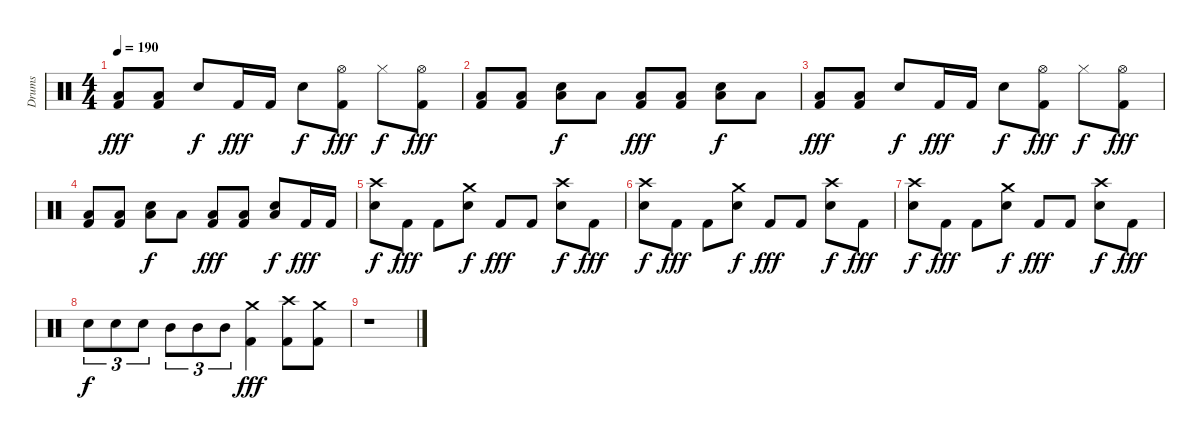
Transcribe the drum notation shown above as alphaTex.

\track ("Drums" "Drums") {instrument percussion}
\staff {score}
\articulation defaults
\ts (4 4)
\tempo 190
\clef neutral
\ks c
("Low Floor Tom (hit)" "Kick (hit) 2").8{dy fff} ("Low Floor Tom (hit)" "Kick (hit) 2").8 "Electric Snare (hit)".8{dy f} "Kick (hit) 2".16{dy fff} "Kick (hit) 2".16 "Electric Snare (hit)".8{dy f} ("Hi-Hat (open)" "Kick (hit) 2").8{dy fff} "Hi-Hat (closed)".8{dy f} ("Hi-Hat (open)" "Kick (hit) 2").8{dy fff} |
("Low Floor Tom (hit)" "Kick (hit) 2").8 ("Low Floor Tom (hit)" "Kick (hit) 2").8 ("Electric Snare (hit)" "Low Floor Tom (hit)").8{dy f} "Low Floor Tom (hit)".8 ("Low Floor Tom (hit)" "Kick (hit) 2").8{dy fff} ("Low Floor Tom (hit)" "Kick (hit) 2").8 ("Electric Snare (hit)" "Low Floor Tom (hit)").8{dy f} "Low Floor Tom (hit)".8 |
("Low Floor Tom (hit)" "Kick (hit) 2").8{dy fff} ("Low Floor Tom (hit)" "Kick (hit) 2").8 "Electric Snare (hit)".8{dy f} "Kick (hit) 2".16{dy fff} "Kick (hit) 2".16 "Electric Snare (hit)".8{dy f} ("Hi-Hat (open)" "Kick (hit) 2").8{dy fff} "Hi-Hat (closed)".8{dy f} ("Hi-Hat (open)" "Kick (hit) 2").8{dy fff} |
("Low Floor Tom (hit)" "Kick (hit) 2").8 ("Low Floor Tom (hit)" "Kick (hit) 2").8 ("Electric Snare (hit)" "Low Floor Tom (hit)").8{dy f} "Low Floor Tom (hit)".8 ("Low Floor Tom (hit)" "Kick (hit) 2").8{dy fff} ("Low Floor Tom (hit)" "Kick (hit) 2").8 ("Electric Snare (hit)" "Low Floor Tom (hit)").8{dy f} "Kick (hit) 2".16{dy fff} "Kick (hit) 2".16 |
("Crash high (hit)" "Electric Snare (hit)").8{dy f} "Kick (hit) 2".8{dy fff} "Kick (hit) 2".8 ("Crash medium (hit)" "Electric Snare (hit)").8{dy f} "Kick (hit) 2".8{dy fff} "Kick (hit) 2".8 ("Crash high (hit)" "Electric Snare (hit)").8{dy f} "Kick (hit) 2".8{dy fff} |
("Crash high (hit)" "Electric Snare (hit)").8{dy f} "Kick (hit) 2".8{dy fff} "Kick (hit) 2".8 ("Crash medium (hit)" "Electric Snare (hit)").8{dy f} "Kick (hit) 2".8{dy fff} "Kick (hit) 2".8 ("Crash high (hit)" "Electric Snare (hit)").8{dy f} "Kick (hit) 2".8{dy fff} |
("Crash high (hit)" "Electric Snare (hit)").8{dy f} "Kick (hit) 2".8{dy fff} "Kick (hit) 2".8 ("Crash medium (hit)" "Electric Snare (hit)").8{dy f} "Kick (hit) 2".8{dy fff} "Kick (hit) 2".8 ("Crash high (hit)" "Electric Snare (hit)").8{dy f} "Kick (hit) 2".8{dy fff} |
"Electric Snare (hit)".8{tu (3 2) dy f} "Electric Snare (hit)".8{tu (3 2)} "Electric Snare (hit)".8{tu (3 2)} "Mid Tom (hit)".8{tu (3 2)} "Mid Tom (hit)".8{tu (3 2)} "Mid Tom (hit)".8{tu (3 2)} ("Crash medium (hit)" "Kick (hit) 2").4{dy fff} ("Crash high (hit)" "Kick (hit) 2").8 ("Crash medium (hit)" "Kick (hit) 2").8 |
r.1
